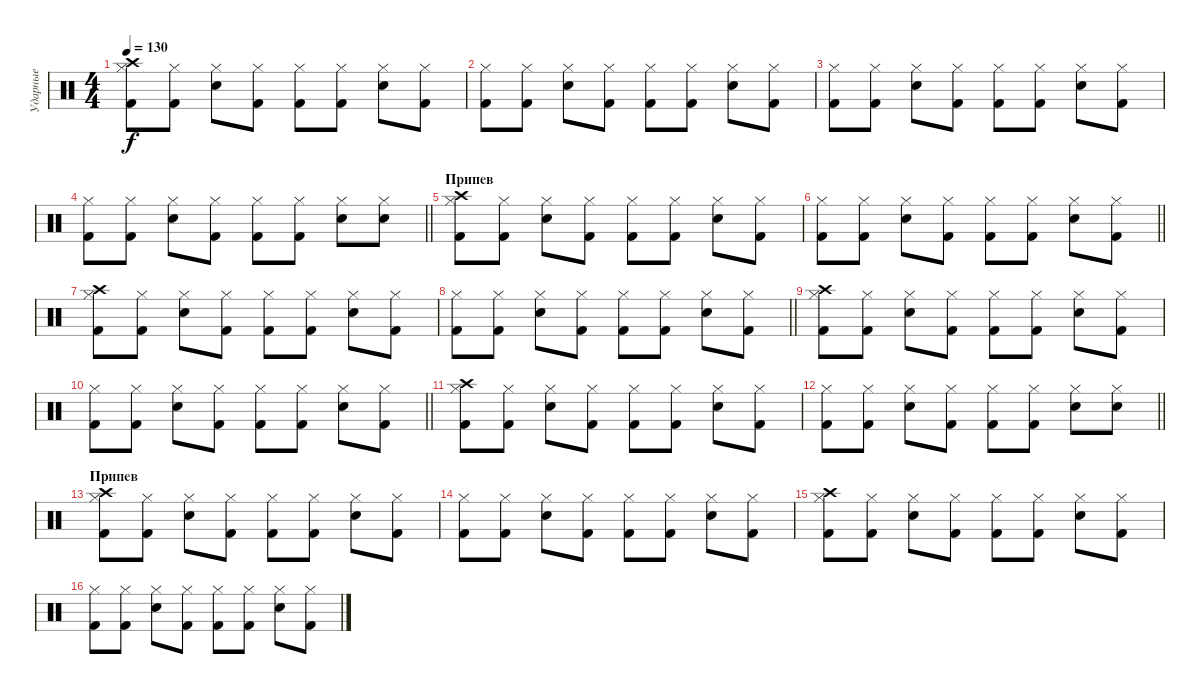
\track ("Ударные" "Ударные") {instrument percussion}
\staff {score}
\articulation defaults
\ts (4 4)
\tempo 130
\clef neutral
\ks c
("Kick (hit) 2" "Crash high (hit)" "Hi-Hat (closed)").8{dy f} ("Kick (hit) 2" "Hi-Hat (closed)").8 ("Snare (hit) 2" "Hi-Hat (closed)").8 ("Kick (hit) 2" "Hi-Hat (closed)").8 ("Kick (hit) 2" "Hi-Hat (closed)").8 ("Kick (hit) 2" "Hi-Hat (closed)").8 ("Snare (hit) 2" "Hi-Hat (closed)").8 ("Kick (hit) 2" "Hi-Hat (closed)").8 |
("Kick (hit) 2" "Hi-Hat (closed)").8 ("Kick (hit) 2" "Hi-Hat (closed)").8 ("Snare (hit) 2" "Hi-Hat (closed)").8 ("Kick (hit) 2" "Hi-Hat (closed)").8 ("Kick (hit) 2" "Hi-Hat (closed)").8 ("Kick (hit) 2" "Hi-Hat (closed)").8 ("Snare (hit) 2" "Hi-Hat (closed)").8 ("Kick (hit) 2" "Hi-Hat (closed)").8 |
("Kick (hit) 2" "Hi-Hat (closed)").8 ("Kick (hit) 2" "Hi-Hat (closed)").8 ("Snare (hit) 2" "Hi-Hat (closed)").8 ("Kick (hit) 2" "Hi-Hat (closed)").8 ("Kick (hit) 2" "Hi-Hat (closed)").8 ("Kick (hit) 2" "Hi-Hat (closed)").8 ("Snare (hit) 2" "Hi-Hat (closed)").8 ("Kick (hit) 2" "Hi-Hat (closed)").8 |
\barLineRight lightlight
("Kick (hit) 2" "Hi-Hat (closed)").8 ("Kick (hit) 2" "Hi-Hat (closed)").8 ("Snare (hit) 2" "Hi-Hat (closed)").8 ("Kick (hit) 2" "Hi-Hat (closed)").8 ("Kick (hit) 2" "Hi-Hat (closed)").8 ("Kick (hit) 2" "Hi-Hat (closed)").8 ("Snare (hit) 2" "Hi-Hat (closed)").8 ("Snare (hit) 2" "Hi-Hat (closed)").8 |
\section ("" "Припев")
("Kick (hit) 2" "Crash high (hit)" "Hi-Hat (closed)").8 ("Kick (hit) 2" "Hi-Hat (closed)").8 ("Snare (hit) 2" "Hi-Hat (closed)").8 ("Kick (hit) 2" "Hi-Hat (closed)").8 ("Kick (hit) 2" "Hi-Hat (closed)").8 ("Kick (hit) 2" "Hi-Hat (closed)").8 ("Snare (hit) 2" "Hi-Hat (closed)").8 ("Kick (hit) 2" "Hi-Hat (closed)").8 |
\barLineRight lightlight
("Kick (hit) 2" "Hi-Hat (closed)").8 ("Kick (hit) 2" "Hi-Hat (closed)").8 ("Snare (hit) 2" "Hi-Hat (closed)").8 ("Kick (hit) 2" "Hi-Hat (closed)").8 ("Kick (hit) 2" "Hi-Hat (closed)").8 ("Kick (hit) 2" "Hi-Hat (closed)").8 ("Snare (hit) 2" "Hi-Hat (closed)").8 ("Kick (hit) 2" "Hi-Hat (closed)").8 |
("Kick (hit) 2" "Crash high (hit)" "Hi-Hat (closed)").8 ("Kick (hit) 2" "Hi-Hat (closed)").8 ("Snare (hit) 2" "Hi-Hat (closed)").8 ("Kick (hit) 2" "Hi-Hat (closed)").8 ("Kick (hit) 2" "Hi-Hat (closed)").8 ("Kick (hit) 2" "Hi-Hat (closed)").8 ("Snare (hit) 2" "Hi-Hat (closed)").8 ("Kick (hit) 2" "Hi-Hat (closed)").8 |
\barLineRight lightlight
("Kick (hit) 2" "Hi-Hat (closed)").8 ("Kick (hit) 2" "Hi-Hat (closed)").8 ("Snare (hit) 2" "Hi-Hat (closed)").8 ("Kick (hit) 2" "Hi-Hat (closed)").8 ("Kick (hit) 2" "Hi-Hat (closed)").8 ("Kick (hit) 2" "Hi-Hat (closed)").8 ("Snare (hit) 2" "Hi-Hat (closed)").8 ("Kick (hit) 2" "Hi-Hat (closed)").8 |
("Kick (hit) 2" "Crash high (hit)" "Hi-Hat (closed)").8 ("Kick (hit) 2" "Hi-Hat (closed)").8 ("Snare (hit) 2" "Hi-Hat (closed)").8 ("Kick (hit) 2" "Hi-Hat (closed)").8 ("Kick (hit) 2" "Hi-Hat (closed)").8 ("Kick (hit) 2" "Hi-Hat (closed)").8 ("Snare (hit) 2" "Hi-Hat (closed)").8 ("Kick (hit) 2" "Hi-Hat (closed)").8 |
\barLineRight lightlight
("Kick (hit) 2" "Hi-Hat (closed)").8 ("Kick (hit) 2" "Hi-Hat (closed)").8 ("Snare (hit) 2" "Hi-Hat (closed)").8 ("Kick (hit) 2" "Hi-Hat (closed)").8 ("Kick (hit) 2" "Hi-Hat (closed)").8 ("Kick (hit) 2" "Hi-Hat (closed)").8 ("Snare (hit) 2" "Hi-Hat (closed)").8 ("Kick (hit) 2" "Hi-Hat (closed)").8 |
("Kick (hit) 2" "Crash high (hit)" "Hi-Hat (closed)").8 ("Kick (hit) 2" "Hi-Hat (closed)").8 ("Snare (hit) 2" "Hi-Hat (closed)").8 ("Kick (hit) 2" "Hi-Hat (closed)").8 ("Kick (hit) 2" "Hi-Hat (closed)").8 ("Kick (hit) 2" "Hi-Hat (closed)").8 ("Snare (hit) 2" "Hi-Hat (closed)").8 ("Kick (hit) 2" "Hi-Hat (closed)").8 |
\barLineRight lightlight
("Kick (hit) 2" "Hi-Hat (closed)").8 ("Kick (hit) 2" "Hi-Hat (closed)").8 ("Snare (hit) 2" "Hi-Hat (closed)").8 ("Kick (hit) 2" "Hi-Hat (closed)").8 ("Kick (hit) 2" "Hi-Hat (closed)").8 ("Kick (hit) 2" "Hi-Hat (closed)").8 ("Snare (hit) 2" "Hi-Hat (closed)").8 ("Snare (hit) 2" "Hi-Hat (closed)").8 |
\section ("" "Припев")
("Kick (hit) 2" "Crash high (hit)" "Hi-Hat (closed)").8 ("Kick (hit) 2" "Hi-Hat (closed)").8 ("Snare (hit) 2" "Hi-Hat (closed)").8 ("Kick (hit) 2" "Hi-Hat (closed)").8 ("Kick (hit) 2" "Hi-Hat (closed)").8 ("Kick (hit) 2" "Hi-Hat (closed)").8 ("Snare (hit) 2" "Hi-Hat (closed)").8 ("Kick (hit) 2" "Hi-Hat (closed)").8 |
("Kick (hit) 2" "Hi-Hat (closed)").8 ("Kick (hit) 2" "Hi-Hat (closed)").8 ("Snare (hit) 2" "Hi-Hat (closed)").8 ("Kick (hit) 2" "Hi-Hat (closed)").8 ("Kick (hit) 2" "Hi-Hat (closed)").8 ("Kick (hit) 2" "Hi-Hat (closed)").8 ("Snare (hit) 2" "Hi-Hat (closed)").8 ("Kick (hit) 2" "Hi-Hat (closed)").8 |
("Kick (hit) 2" "Crash high (hit)" "Hi-Hat (closed)").8 ("Kick (hit) 2" "Hi-Hat (closed)").8 ("Snare (hit) 2" "Hi-Hat (closed)").8 ("Kick (hit) 2" "Hi-Hat (closed)").8 ("Kick (hit) 2" "Hi-Hat (closed)").8 ("Kick (hit) 2" "Hi-Hat (closed)").8 ("Snare (hit) 2" "Hi-Hat (closed)").8 ("Kick (hit) 2" "Hi-Hat (closed)").8 |
("Kick (hit) 2" "Hi-Hat (closed)").8 ("Kick (hit) 2" "Hi-Hat (closed)").8 ("Snare (hit) 2" "Hi-Hat (closed)").8 ("Kick (hit) 2" "Hi-Hat (closed)").8 ("Kick (hit) 2" "Hi-Hat (closed)").8 ("Kick (hit) 2" "Hi-Hat (closed)").8 ("Snare (hit) 2" "Hi-Hat (closed)").8 ("Kick (hit) 2" "Hi-Hat (closed)").8
